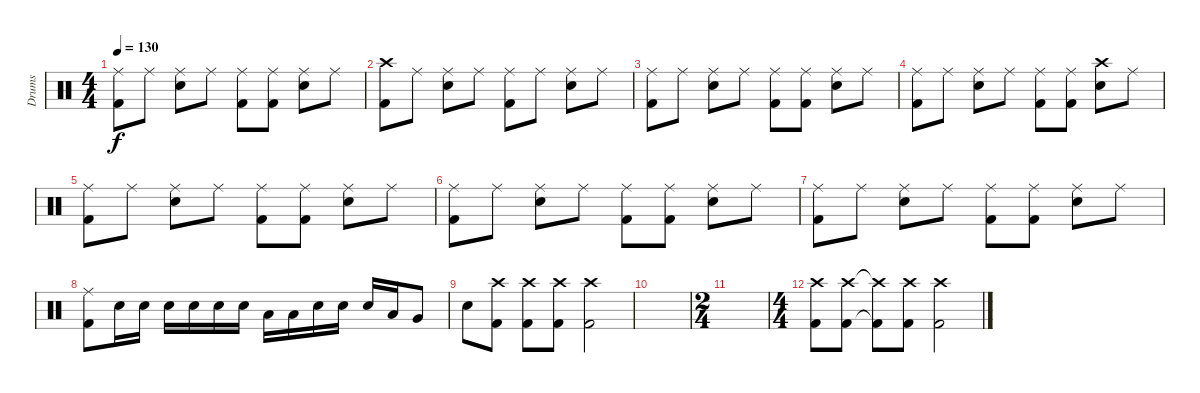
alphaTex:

\track ("Drums" "Drums") {instrument percussion}
\staff {score}
\articulation defaults
\ts (4 4)
\tempo 130
\clef neutral
\ks c
("Ride (middle)" "Kick (hit) 2").8{dy f} "Ride (middle)".8 ("Ride (middle)" "Snare (hit) 2").8 "Ride (middle)".8 ("Ride (middle)" "Kick (hit) 2").8 ("Ride (middle)" "Kick (hit) 2").8 ("Ride (middle)" "Snare (hit) 2").8 "Ride (middle)".8 |
("Crash high (hit)" "Kick (hit) 2").8 "Ride (middle)".8 ("Ride (middle)" "Snare (hit) 2").8 "Ride (middle)".8 ("Ride (middle)" "Kick (hit) 2").8 "Ride (middle)".8 ("Ride (middle)" "Snare (hit) 2").8 "Ride (middle)".8 |
("Ride (middle)" "Kick (hit) 2").8 "Ride (middle)".8 ("Ride (middle)" "Snare (hit) 2").8 "Ride (middle)".8 ("Ride (middle)" "Kick (hit) 2").8 ("Ride (middle)" "Kick (hit) 2").8 ("Ride (middle)" "Snare (hit) 2").8 "Ride (middle)".8 |
("Ride (middle)" "Kick (hit) 2").8 "Ride (middle)".8 ("Ride (middle)" "Snare (hit) 2").8 "Ride (middle)".8 ("Ride (middle)" "Kick (hit) 2").8 ("Ride (middle)" "Kick (hit) 2").8 ("Crash high (hit)" "Snare (hit) 2").8 "Ride (middle)".8 |
("Ride (middle)" "Kick (hit) 2").8 "Ride (middle)".8 ("Ride (middle)" "Snare (hit) 2").8 "Ride (middle)".8 ("Ride (middle)" "Kick (hit) 2").8 ("Ride (middle)" "Kick (hit) 2").8 ("Ride (middle)" "Snare (hit) 2").8 "Ride (middle)".8 |
("Ride (middle)" "Kick (hit) 2").8 "Ride (middle)".8 ("Ride (middle)" "Snare (hit) 2").8 "Ride (middle)".8 ("Ride (middle)" "Kick (hit) 2").8 ("Ride (middle)" "Kick (hit) 2").8 ("Ride (middle)" "Snare (hit) 2").8 "Ride (middle)".8 |
("Ride (middle)" "Kick (hit) 2").8 "Ride (middle)".8 ("Ride (middle)" "Snare (hit) 2").8 "Ride (middle)".8 ("Ride (middle)" "Kick (hit) 2").8 ("Ride (middle)" "Kick (hit) 2").8 ("Ride (middle)" "Snare (hit) 2").8 "Ride (middle)".8 |
("Ride (middle)" "Kick (hit) 2").8 "Snare (hit) 2".16 "Snare (hit) 2".16 "Snare (hit) 2".16 "Snare (hit) 2".16 "Snare (hit) 2".16 "Snare (hit) 2".16 "Low Tom (hit)".16 "Low Tom (hit)".16 "Snare (hit) 2".16 "Snare (hit) 2".16 "Snare (hit) 2".16 "Low Tom (hit)".16 "Very Low Tom (hit)".8 |
"Snare (hit) 2".8 ("Crash high (hit)" "Kick (hit) 2").8 ("Crash high (hit)" "Kick (hit) 2").8 ("Crash high (hit)" "Kick (hit) 2").8 ("Crash high (hit)" "Kick (hit) 2").2 |
|
\ts (2 4)
|
\ts (4 4)
("Crash high (hit)" "Kick (hit) 2").8 ("Crash high (hit)" "Kick (hit) 2").8 ("Crash high (hit)"{t} "Kick (hit) 2"{t}).8 ("Crash high (hit)" "Kick (hit) 2").8 ("Crash high (hit)" "Kick (hit) 2").2
